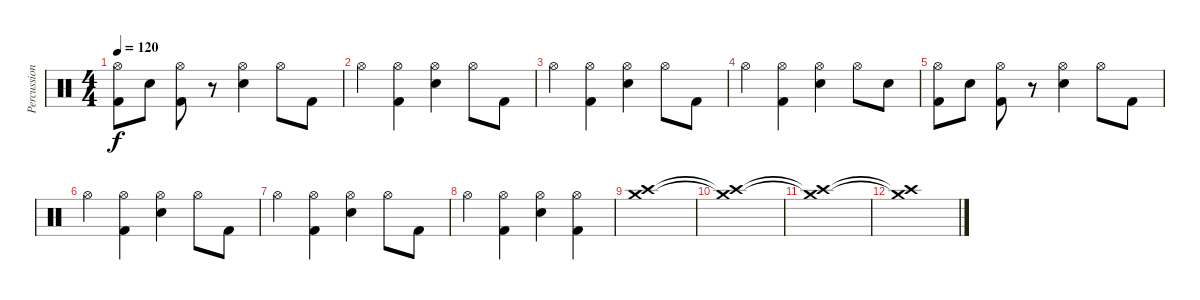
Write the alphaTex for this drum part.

\track ("Percussion" "Percussion") {instrument percussion}
\staff {score}
\articulation defaults
\ts (4 4)
\tempo 120
\clef neutral
\ks c
("Hi-Hat (open)" "Kick (hit) 2").8{dy f} "Electric Snare (hit)".8 ("Hi-Hat (open)" "Kick (hit) 2").8 r.8 ("Hi-Hat (open)" "Electric Snare (hit)").4 "Hi-Hat (open)".8 "Kick (hit) 2".8 |
"Hi-Hat (open)".4 ("Hi-Hat (open)" "Kick (hit) 2").4 ("Hi-Hat (open)" "Electric Snare (hit)").4 "Hi-Hat (open)".8 "Kick (hit) 2".8 |
"Hi-Hat (open)".4 ("Hi-Hat (open)" "Kick (hit) 2").4 ("Hi-Hat (open)" "Electric Snare (hit)").4 "Hi-Hat (open)".8 "Kick (hit) 2".8 |
"Hi-Hat (open)".4 ("Hi-Hat (open)" "Kick (hit) 2").4 ("Hi-Hat (open)" "Electric Snare (hit)").4 "Hi-Hat (open)".8 "Electric Snare (hit)".8 |
("Hi-Hat (open)" "Kick (hit) 2").8 "Electric Snare (hit)".8 ("Hi-Hat (open)" "Kick (hit) 2").8 r.8 ("Hi-Hat (open)" "Electric Snare (hit)").4 "Hi-Hat (open)".8 "Kick (hit) 2".8 |
"Hi-Hat (open)".4 ("Hi-Hat (open)" "Kick (hit) 2").4 ("Hi-Hat (open)" "Electric Snare (hit)").4 "Hi-Hat (open)".8 "Kick (hit) 2".8 |
"Hi-Hat (open)".4 ("Hi-Hat (open)" "Kick (hit) 2").4 ("Hi-Hat (open)" "Electric Snare (hit)").4 "Hi-Hat (open)".8 "Kick (hit) 2".8 |
"Hi-Hat (open)".4 ("Hi-Hat (open)" "Kick (hit) 2").4 ("Hi-Hat (open)" "Electric Snare (hit)").4 ("Hi-Hat (open)" "Kick (hit) 2").4 |
("Crash medium (hit)" "Crash high (hit)").1 |
("Crash medium (hit)"{t} "Crash high (hit)"{t}).1 |
("Crash medium (hit)"{t} "Crash high (hit)"{t}).1 |
("Crash medium (hit)"{t} "Crash high (hit)"{t}).1
